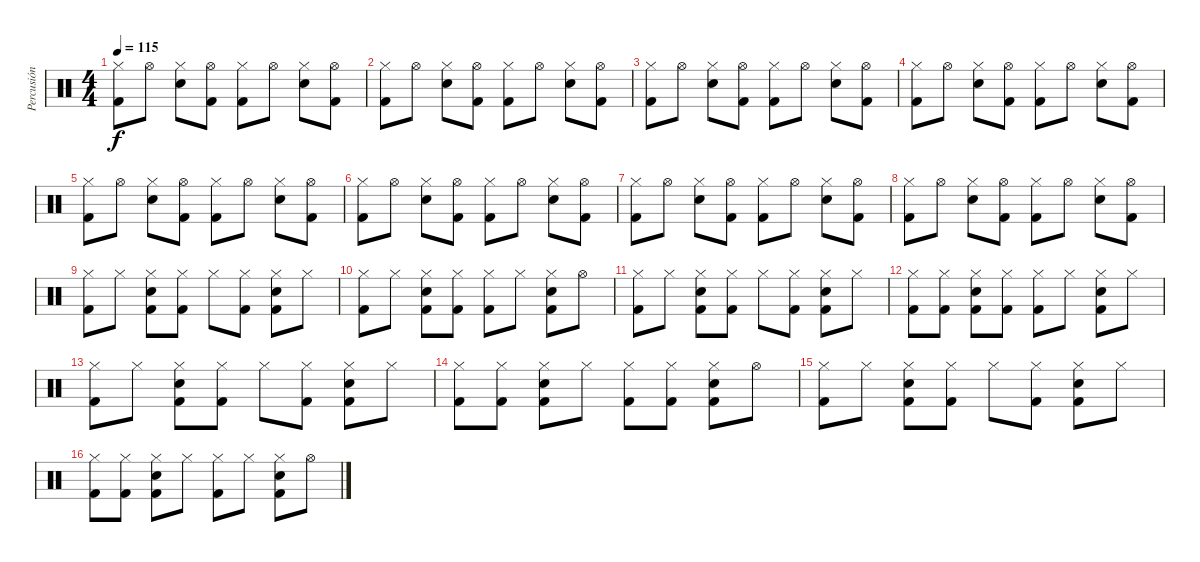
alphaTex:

\track ("Percusión" "Percusión") {instrument percussion}
\staff {score}
\articulation defaults
\ts (4 4)
\tempo 115
\clef neutral
\ks c
("Hi-Hat (closed)" "Kick (hit) 2").8{dy f} "Hi-Hat (open)".8 ("Hi-Hat (closed)" "Electric Snare (hit)").8 ("Hi-Hat (open)" "Kick (hit) 2").8 ("Hi-Hat (closed)" "Kick (hit) 2").8 "Hi-Hat (open)".8 ("Hi-Hat (closed)" "Electric Snare (hit)").8 ("Hi-Hat (open)" "Kick (hit) 2").8 |
("Hi-Hat (closed)" "Kick (hit) 2").8 "Hi-Hat (open)".8 ("Hi-Hat (closed)" "Electric Snare (hit)").8 ("Hi-Hat (open)" "Kick (hit) 2").8 ("Hi-Hat (closed)" "Kick (hit) 2").8 "Hi-Hat (open)".8 ("Hi-Hat (closed)" "Electric Snare (hit)").8 ("Hi-Hat (open)" "Kick (hit) 2").8 |
("Hi-Hat (closed)" "Kick (hit) 2").8 "Hi-Hat (open)".8 ("Hi-Hat (closed)" "Electric Snare (hit)").8 ("Hi-Hat (open)" "Kick (hit) 2").8 ("Hi-Hat (closed)" "Kick (hit) 2").8 "Hi-Hat (open)".8 ("Hi-Hat (closed)" "Electric Snare (hit)").8 ("Hi-Hat (open)" "Kick (hit) 2").8 |
("Hi-Hat (closed)" "Kick (hit) 2").8 "Hi-Hat (open)".8 ("Hi-Hat (closed)" "Electric Snare (hit)").8 ("Hi-Hat (open)" "Kick (hit) 2").8 ("Hi-Hat (closed)" "Kick (hit) 2").8 "Hi-Hat (open)".8 ("Hi-Hat (closed)" "Electric Snare (hit)").8 ("Hi-Hat (open)" "Kick (hit) 2").8 |
("Hi-Hat (closed)" "Kick (hit) 2").8 "Hi-Hat (open)".8 ("Hi-Hat (closed)" "Electric Snare (hit)").8 ("Hi-Hat (open)" "Kick (hit) 2").8 ("Hi-Hat (closed)" "Kick (hit) 2").8 "Hi-Hat (open)".8 ("Hi-Hat (closed)" "Electric Snare (hit)").8 ("Hi-Hat (open)" "Kick (hit) 2").8 |
("Hi-Hat (closed)" "Kick (hit) 2").8 "Hi-Hat (open)".8 ("Hi-Hat (closed)" "Electric Snare (hit)").8 ("Hi-Hat (open)" "Kick (hit) 2").8 ("Hi-Hat (closed)" "Kick (hit) 2").8 "Hi-Hat (open)".8 ("Hi-Hat (closed)" "Electric Snare (hit)").8 ("Hi-Hat (open)" "Kick (hit) 2").8 |
("Hi-Hat (closed)" "Kick (hit) 2").8 "Hi-Hat (open)".8 ("Hi-Hat (closed)" "Electric Snare (hit)").8 ("Hi-Hat (open)" "Kick (hit) 2").8 ("Hi-Hat (closed)" "Kick (hit) 2").8 "Hi-Hat (open)".8 ("Hi-Hat (closed)" "Electric Snare (hit)").8 ("Hi-Hat (open)" "Kick (hit) 2").8 |
("Hi-Hat (closed)" "Kick (hit) 2").8 "Hi-Hat (open)".8 ("Hi-Hat (closed)" "Electric Snare (hit)").8 ("Hi-Hat (open)" "Kick (hit) 2").8 ("Hi-Hat (closed)" "Kick (hit) 2").8 "Hi-Hat (open)".8 ("Hi-Hat (closed)" "Electric Snare (hit)").8 ("Hi-Hat (open)" "Kick (hit) 2").8 |
("Hi-Hat (closed)" "Kick (hit) 2").8 "Hi-Hat (closed)".8 ("Hi-Hat (closed)" "Electric Snare (hit)" "Kick (hit) 2").8 ("Hi-Hat (closed)" "Kick (hit) 2").8 "Hi-Hat (closed)".8 ("Hi-Hat (closed)" "Kick (hit) 2").8 ("Hi-Hat (closed)" "Electric Snare (hit)" "Kick (hit) 2").8 "Hi-Hat (closed)".8 |
("Hi-Hat (closed)" "Kick (hit) 2").8 "Hi-Hat (closed)".8 ("Hi-Hat (closed)" "Electric Snare (hit)" "Kick (hit) 2").8 ("Hi-Hat (closed)" "Kick (hit) 2").8 ("Hi-Hat (closed)" "Kick (hit) 2").8 "Hi-Hat (closed)".8 ("Hi-Hat (closed)" "Electric Snare (hit)" "Kick (hit) 2").8 "Hi-Hat (open)".8 |
("Hi-Hat (closed)" "Kick (hit) 2").8 "Hi-Hat (closed)".8 ("Hi-Hat (closed)" "Electric Snare (hit)" "Kick (hit) 2").8 ("Hi-Hat (closed)" "Kick (hit) 2").8 "Hi-Hat (closed)".8 ("Hi-Hat (closed)" "Kick (hit) 2").8 ("Hi-Hat (closed)" "Electric Snare (hit)" "Kick (hit) 2").8 "Hi-Hat (closed)".8 |
("Hi-Hat (closed)" "Kick (hit) 2").8 ("Hi-Hat (closed)" "Kick (hit) 2").8 ("Hi-Hat (closed)" "Electric Snare (hit)" "Kick (hit) 2").8 ("Hi-Hat (closed)" "Kick (hit) 2").8 ("Hi-Hat (closed)" "Kick (hit) 2").8 "Hi-Hat (closed)".8 ("Hi-Hat (closed)" "Electric Snare (hit)" "Kick (hit) 2").8 "Hi-Hat (closed)".8 |
("Hi-Hat (closed)" "Kick (hit) 2").8 "Hi-Hat (closed)".8 ("Hi-Hat (closed)" "Electric Snare (hit)" "Kick (hit) 2").8 ("Hi-Hat (closed)" "Kick (hit) 2").8 "Hi-Hat (closed)".8 ("Hi-Hat (closed)" "Kick (hit) 2").8 ("Hi-Hat (closed)" "Electric Snare (hit)" "Kick (hit) 2").8 "Hi-Hat (closed)".8 |
("Hi-Hat (closed)" "Kick (hit) 2").8 ("Hi-Hat (closed)" "Kick (hit) 2").8 ("Hi-Hat (closed)" "Electric Snare (hit)" "Kick (hit) 2").8 "Hi-Hat (closed)".8 ("Hi-Hat (closed)" "Kick (hit) 2").8 ("Hi-Hat (closed)" "Kick (hit) 2").8 ("Hi-Hat (closed)" "Electric Snare (hit)" "Kick (hit) 2").8 "Hi-Hat (open)".8 |
("Hi-Hat (closed)" "Kick (hit) 2").8 "Hi-Hat (closed)".8 ("Hi-Hat (closed)" "Electric Snare (hit)" "Kick (hit) 2").8 ("Hi-Hat (closed)" "Kick (hit) 2").8 "Hi-Hat (closed)".8 ("Hi-Hat (closed)" "Kick (hit) 2").8 ("Hi-Hat (closed)" "Electric Snare (hit)" "Kick (hit) 2").8 "Hi-Hat (closed)".8 |
("Hi-Hat (closed)" "Kick (hit) 2").8 ("Hi-Hat (closed)" "Kick (hit) 2").8 ("Hi-Hat (closed)" "Electric Snare (hit)" "Kick (hit) 2").8 "Hi-Hat (closed)".8 ("Hi-Hat (closed)" "Kick (hit) 2").8 "Hi-Hat (closed)".8 ("Hi-Hat (closed)" "Electric Snare (hit)" "Kick (hit) 2").8 "Hi-Hat (open)".8
